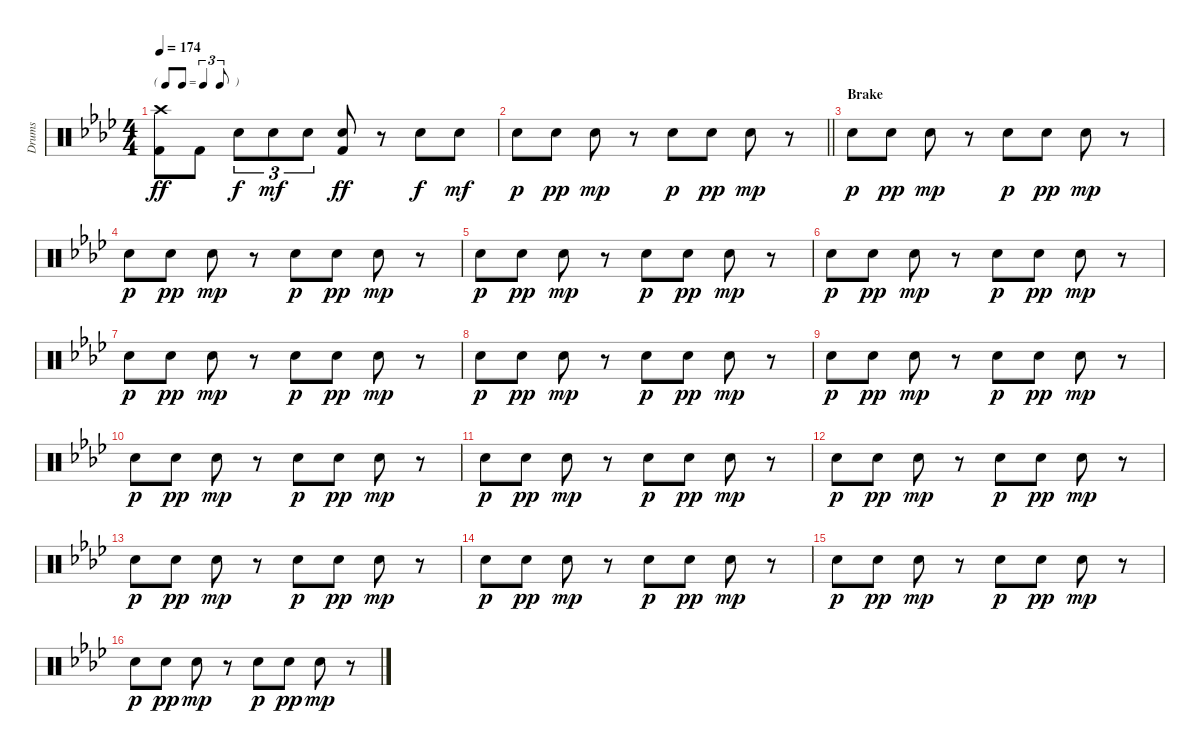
\track ("Drums" "Drums") {instrument percussion}
\staff {score}
\articulation defaults
\ts (4 4)
\tf triplet8th
\tempo 174
\clef neutral
\ks ab
("Crash high (hit)" "Kick (hit) 2").8{dy ff} "Kick (hit) 2".8 "Snare (hit) 2".8{tu (3 2) dy f} "Snare (hit) 2".8{tu (3 2) dy mf} "Snare (hit) 2".8{tu (3 2)} ("Snare (hit) 2" "Kick (hit) 2").8{dy ff} r.8 "Snare (hit) 2".8{dy f} "Snare (hit) 2".8{dy mf} |
\barLineRight lightlight "Snare (hit) 2".8{dy p volume 5} "Snare (hit) 2".8{dy pp} "Snare (hit) 2".8{dy mp}
r.8 "Snare (hit) 2".8{dy p} "Snare (hit) 2".8{dy pp} "Snare (hit) 2".8{dy mp} r.8 |
\section ("" "Brake")
"Snare (hit) 2".8{dy p} "Snare (hit) 2".8{dy pp} "Snare (hit) 2".8{dy mp} r.8 "Snare (hit) 2".8{dy p} "Snare (hit) 2".8{dy pp} "Snare (hit) 2".8{dy mp} r.8 |
"Snare (hit) 2".8{dy p} "Snare (hit) 2".8{dy pp} "Snare (hit) 2".8{dy mp} r.8 "Snare (hit) 2".8{dy p} "Snare (hit) 2".8{dy pp} "Snare (hit) 2".8{dy mp} r.8 |
"Snare (hit) 2".8{dy p} "Snare (hit) 2".8{dy pp} "Snare (hit) 2".8{dy mp} r.8 "Snare (hit) 2".8{dy p} "Snare (hit) 2".8{dy pp} "Snare (hit) 2".8{dy mp} r.8 |
"Snare (hit) 2".8{dy p} "Snare (hit) 2".8{dy pp} "Snare (hit) 2".8{dy mp} r.8 "Snare (hit) 2".8{dy p} "Snare (hit) 2".8{dy pp} "Snare (hit) 2".8{dy mp} r.8 |
"Snare (hit) 2".8{dy p} "Snare (hit) 2".8{dy pp} "Snare (hit) 2".8{dy mp} r.8 "Snare (hit) 2".8{dy p} "Snare (hit) 2".8{dy pp} "Snare (hit) 2".8{dy mp} r.8 |
"Snare (hit) 2".8{dy p} "Snare (hit) 2".8{dy pp} "Snare (hit) 2".8{dy mp} r.8 "Snare (hit) 2".8{dy p} "Snare (hit) 2".8{dy pp} "Snare (hit) 2".8{dy mp} r.8 |
"Snare (hit) 2".8{dy p} "Snare (hit) 2".8{dy pp} "Snare (hit) 2".8{dy mp} r.8 "Snare (hit) 2".8{dy p} "Snare (hit) 2".8{dy pp} "Snare (hit) 2".8{dy mp} r.8 |
"Snare (hit) 2".8{dy p} "Snare (hit) 2".8{dy pp} "Snare (hit) 2".8{dy mp} r.8 "Snare (hit) 2".8{dy p} "Snare (hit) 2".8{dy pp} "Snare (hit) 2".8{dy mp} r.8 |
"Snare (hit) 2".8{dy p} "Snare (hit) 2".8{dy pp} "Snare (hit) 2".8{dy mp} r.8 "Snare (hit) 2".8{dy p} "Snare (hit) 2".8{dy pp} "Snare (hit) 2".8{dy mp} r.8 |
"Snare (hit) 2".8{dy p} "Snare (hit) 2".8{dy pp} "Snare (hit) 2".8{dy mp} r.8 "Snare (hit) 2".8{dy p} "Snare (hit) 2".8{dy pp} "Snare (hit) 2".8{dy mp} r.8 |
"Snare (hit) 2".8{dy p} "Snare (hit) 2".8{dy pp} "Snare (hit) 2".8{dy mp} r.8 "Snare (hit) 2".8{dy p} "Snare (hit) 2".8{dy pp} "Snare (hit) 2".8{dy mp} r.8 |
"Snare (hit) 2".8{dy p} "Snare (hit) 2".8{dy pp} "Snare (hit) 2".8{dy mp} r.8 "Snare (hit) 2".8{dy p} "Snare (hit) 2".8{dy pp} "Snare (hit) 2".8{dy mp} r.8 |
"Snare (hit) 2".8{dy p} "Snare (hit) 2".8{dy pp} "Snare (hit) 2".8{dy mp} r.8 "Snare (hit) 2".8{dy p} "Snare (hit) 2".8{dy pp} "Snare (hit) 2".8{dy mp} r.8 |
"Snare (hit) 2".8{dy p} "Snare (hit) 2".8{dy pp} "Snare (hit) 2".8{dy mp} r.8 "Snare (hit) 2".8{dy p} "Snare (hit) 2".8{dy pp} "Snare (hit) 2".8{dy mp} r.8
